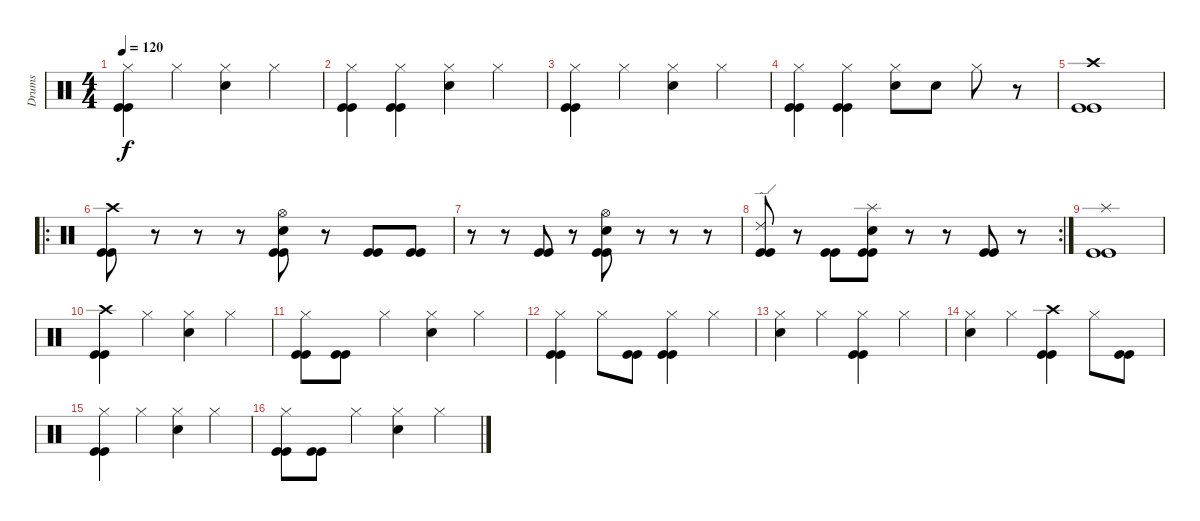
\track ("Drums" "Drums") {instrument percussion}
\staff {score}
\articulation defaults
\ts (4 4)
\tempo 120
\clef neutral
\ks c
("Hi-Hat (closed)" "Kick (hit)" "Kick (hit)").4{dy f} "Hi-Hat (closed)".4 ("Hi-Hat (closed)" "Snare (hit) 2").4 "Hi-Hat (closed)".4 |
("Hi-Hat (closed)" "Kick (hit)" "Kick (hit)").4 ("Hi-Hat (closed)" "Kick (hit)" "Kick (hit)").4 ("Hi-Hat (closed)" "Snare (hit) 2").4 "Hi-Hat (closed)".4 |
("Hi-Hat (closed)" "Kick (hit)" "Kick (hit)").4 "Hi-Hat (closed)".4 ("Hi-Hat (closed)" "Snare (hit) 2").4 "Hi-Hat (closed)".4 |
("Hi-Hat (closed)" "Kick (hit)" "Kick (hit)").4 ("Hi-Hat (closed)" "Kick (hit)" "Kick (hit)").4 ("Hi-Hat (closed)" "Snare (hit) 2").8 "Snare (hit) 2".8 "Hi-Hat (closed)".8 r.8 |
("Crash high (hit)" "Kick (hit)" "Kick (hit)").1 |
\ro
("Crash high (hit)" "Kick (hit)" "Kick (hit)").8 r.8 r.8 r.8 ("Hi-Hat (open)" "Snare (hit) 2" "Kick (hit)" "Kick (hit)").8 r.8 ("Kick (hit)" "Kick (hit)").8 ("Kick (hit)" "Kick (hit)").8 |
r.8 r.8 ("Kick (hit)" "Kick (hit)").8 r.8 ("Hi-Hat (open)" "Snare (hit) 2" "Kick (hit)" "Kick (hit)").8 r.8 r.8 r.8 |
\rc 2
("Ride (edge) 2" "Kick (hit)" "Kick (hit)").8 r.8 ("Kick (hit)" "Kick (hit)").8 ("Splash (hit)" "Snare (hit) 2" "Kick (hit)" "Kick (hit)").8 r.8 r.8 ("Kick (hit)" "Kick (hit)").8 r.8 |
("Splash (hit)" "Kick (hit)" "Kick (hit)").1 |
("Crash high (hit)" "Kick (hit)" "Kick (hit)").4 "Hi-Hat (closed)".4 ("Hi-Hat (closed)" "Snare (hit) 2").4 "Hi-Hat (closed)".4 |
("Hi-Hat (closed)" "Kick (hit)" "Kick (hit)").8 ("Kick (hit)" "Kick (hit)").8 "Hi-Hat (closed)".4 ("Hi-Hat (closed)" "Snare (hit) 2").4 "Hi-Hat (closed)".4 |
("Hi-Hat (closed)" "Kick (hit)" "Kick (hit)").4 "Hi-Hat (closed)".8 ("Kick (hit)" "Kick (hit)").8 ("Hi-Hat (closed)" "Kick (hit)" "Kick (hit)").4 "Hi-Hat (closed)".4 |
("Hi-Hat (closed)" "Snare (hit) 2").4 "Hi-Hat (closed)".4 ("Hi-Hat (closed)" "Kick (hit)" "Kick (hit)").4 "Hi-Hat (closed)".4 |
("Hi-Hat (closed)" "Snare (hit) 2").4 "Hi-Hat (closed)".4 ("Crash high (hit)" "Kick (hit)" "Kick (hit)").4 "Hi-Hat (closed)".8 ("Kick (hit)" "Kick (hit)").8 |
("Hi-Hat (closed)" "Kick (hit)" "Kick (hit)").4 "Hi-Hat (closed)".4 ("Hi-Hat (closed)" "Snare (hit) 2").4 "Hi-Hat (closed)".4 |
("Hi-Hat (closed)" "Kick (hit)" "Kick (hit)").8 ("Kick (hit)" "Kick (hit)").8 "Hi-Hat (closed)".4 ("Hi-Hat (closed)" "Snare (hit) 2").4 "Hi-Hat (closed)".4
